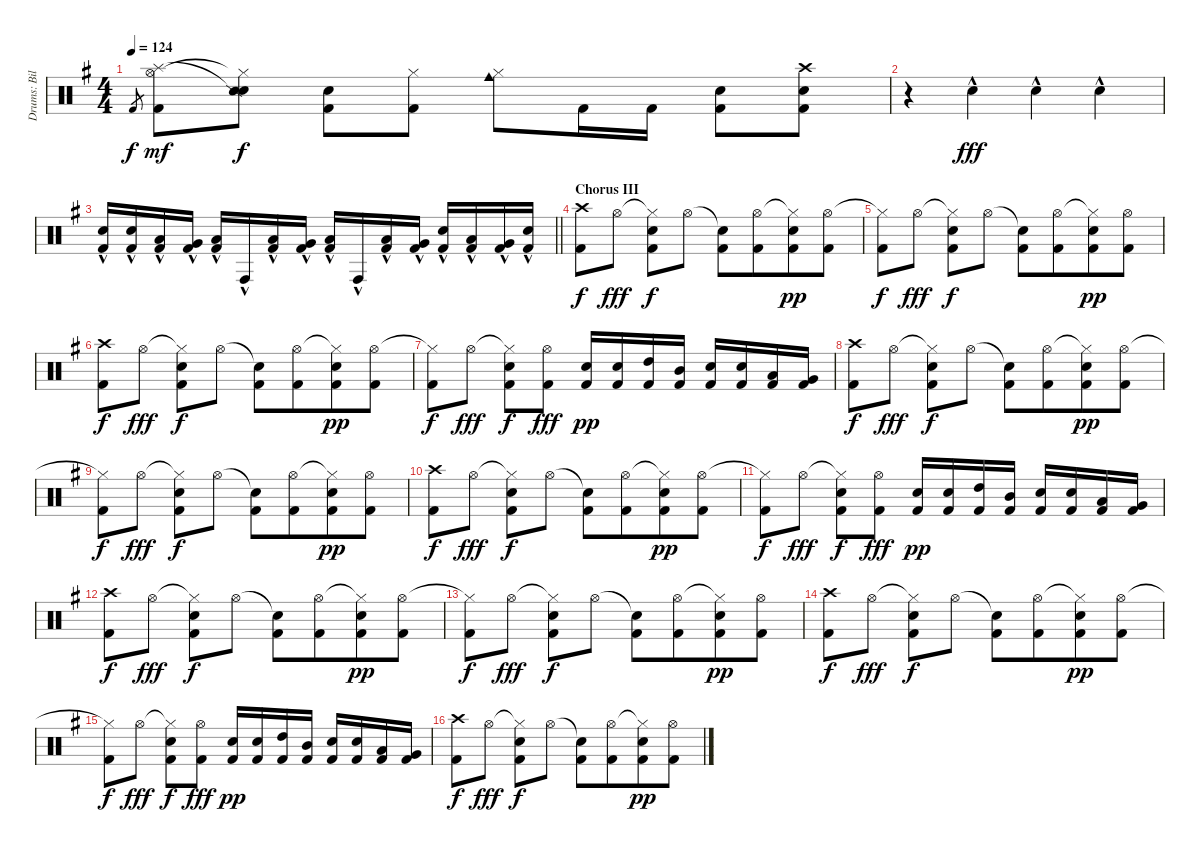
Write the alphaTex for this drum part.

\track ("Drums: Bill" "Drums: Bil") {instrument percussion}
\staff {score}
\articulation defaults
\ts (4 4)
\tempo 124
\clef neutral
\ks g "Kick (hit) 2".8{gr dy f}
("Splash (hit)" "Hi-Hat (open)" "Kick (hit) 2").8{dy mf} ("Snare (hit)"{t} "Hi-Hat (closed)"{t} "Snare (side stick) 2").8{dy f} ("Electric Snare (hit)" "Kick (hit) 2").8 ("Hi-Hat (closed)" "Kick (hit) 2").8 ("Hi-Hat (closed)" "Cowbell medium (hit)").8 "Kick (hit) 2".16 "Kick (hit) 2".16 ("Electric Snare (hit)" "Kick (hit) 2").8 ("Crash high (hit)" "Electric Snare (hit)" "Kick (hit) 2").8 |
r.4 "Electric Snare (hit)"{hac}.4{dy fff} "Electric Snare (hit)"{hac}.4 "Electric Snare (hit)"{hac}.4 |
\barLineRight lightlight
("Electric Snare (hit)"{hac} "Kick (hit) 2"{hac}).16 ("Electric Snare (hit)"{hac} "Kick (hit) 2"{hac}).16 ("Low Tom (hit)"{hac} "Kick (hit) 2"{hac}).16 ("Very Low Tom (hit)"{hac} "Kick (hit) 2"{hac}).16 ("Low Floor Tom (hit)"{hac} "Kick (hit) 2"{hac}).16 "Conga high (hit)"{hac}.16 ("Low Tom (hit)"{hac} "Kick (hit) 2"{hac}).16 ("Very Low Tom (hit)"{hac} "Kick (hit) 2"{hac}).16 ("Low Floor Tom (hit)"{hac} "Kick (hit) 2"{hac}).16 "Conga high (hit)"{hac}.16 ("Low Tom (hit)"{hac} "Kick (hit) 2"{hac}).16 ("Very Low Tom (hit)"{hac} "Kick (hit) 2"{hac}).16 ("Electric Snare (hit)"{hac} "Kick (hit) 2"{hac}).16 ("Low Tom (hit)"{hac} "Kick (hit) 2"{hac}).16 ("Very Low Tom (hit)"{hac} "Kick (hit) 2"{hac}).16 ("Electric Snare (hit)"{hac} "Kick (hit) 2"{hac}).16 |
\section ("" "Chorus III")
("Crash high (hit)" "Kick (hit) 2").8{dy f} "Hi-Hat (open)".8{dy fff} ("Hi-Hat (closed)"{t} "Electric Snare (hit)" "Kick (hit) 2").8{dy f} "Hi-Hat (open)".8 ("Snare (hit)"{t} "Kick (hit) 2").8 ("Hi-Hat (open)" "Kick (hit) 2").8{beam merge} ("Hi-Hat (closed)"{t} "Electric Snare (hit)" "Kick (hit) 2").8{dy pp} ("Hi-Hat (open)" "Kick (hit) 2").8 |
("Hi-Hat (closed)"{t} "Kick (hit) 2").8{dy f} "Hi-Hat (open)".8{dy fff} ("Hi-Hat (closed)"{t} "Electric Snare (hit)" "Kick (hit) 2").8{dy f} "Hi-Hat (open)".8 ("Snare (hit)"{t} "Kick (hit) 2").8 ("Hi-Hat (open)" "Kick (hit) 2").8{beam merge} ("Hi-Hat (closed)"{t} "Electric Snare (hit)" "Kick (hit) 2").8{dy pp} ("Hi-Hat (open)" "Kick (hit) 2").8 |
("Crash high (hit)" "Kick (hit) 2").8{dy f} "Hi-Hat (open)".8{dy fff} ("Hi-Hat (closed)"{t} "Electric Snare (hit)" "Kick (hit) 2").8{dy f} "Hi-Hat (open)".8 ("Snare (hit)"{t} "Kick (hit) 2").8 ("Hi-Hat (open)" "Kick (hit) 2").8{beam merge} ("Hi-Hat (closed)"{t} "Electric Snare (hit)" "Kick (hit) 2").8{dy pp} ("Hi-Hat (open)" "Kick (hit) 2").8 |
("Hi-Hat (closed)"{t} "Kick (hit) 2").8{dy f} "Hi-Hat (open)".8{dy fff} ("Hi-Hat (closed)"{t} "Electric Snare (hit)" "Kick (hit) 2").8{dy f} ("Hi-Hat (open)" "Kick (hit) 2").8{dy fff} ("Electric Snare (hit)" "Kick (hit) 2").16{dy pp} ("Electric Snare (hit)" "Kick (hit) 2").16 ("High Tom (hit)" "Kick (hit) 2").16 ("Mid Tom (hit)" "Kick (hit) 2").16 ("Electric Snare (hit)" "Kick (hit) 2").16 ("Electric Snare (hit)" "Kick (hit) 2").16 ("Low Tom (hit)" "Kick (hit) 2").16 ("Very Low Tom (hit)" "Kick (hit) 2").16 |
("Crash high (hit)" "Kick (hit) 2").8{dy f} "Hi-Hat (open)".8{dy fff} ("Hi-Hat (closed)"{t} "Electric Snare (hit)" "Kick (hit) 2").8{dy f} "Hi-Hat (open)".8 ("Snare (hit)"{t} "Kick (hit) 2").8 ("Hi-Hat (open)" "Kick (hit) 2").8{beam merge} ("Hi-Hat (closed)"{t} "Electric Snare (hit)" "Kick (hit) 2").8{dy pp} ("Hi-Hat (open)" "Kick (hit) 2").8 |
("Hi-Hat (closed)"{t} "Kick (hit) 2").8{dy f} "Hi-Hat (open)".8{dy fff} ("Hi-Hat (closed)"{t} "Electric Snare (hit)" "Kick (hit) 2").8{dy f} "Hi-Hat (open)".8 ("Snare (hit)"{t} "Kick (hit) 2").8 ("Hi-Hat (open)" "Kick (hit) 2").8{beam merge} ("Hi-Hat (closed)"{t} "Electric Snare (hit)" "Kick (hit) 2").8{dy pp} ("Hi-Hat (open)" "Kick (hit) 2").8 |
("Crash high (hit)" "Kick (hit) 2").8{dy f} "Hi-Hat (open)".8{dy fff} ("Hi-Hat (closed)"{t} "Electric Snare (hit)" "Kick (hit) 2").8{dy f} "Hi-Hat (open)".8 ("Snare (hit)"{t} "Kick (hit) 2").8 ("Hi-Hat (open)" "Kick (hit) 2").8{beam merge} ("Hi-Hat (closed)"{t} "Electric Snare (hit)" "Kick (hit) 2").8{dy pp} ("Hi-Hat (open)" "Kick (hit) 2").8 |
("Hi-Hat (closed)"{t} "Kick (hit) 2").8{dy f} "Hi-Hat (open)".8{dy fff} ("Hi-Hat (closed)"{t} "Electric Snare (hit)" "Kick (hit) 2").8{dy f} ("Hi-Hat (open)" "Kick (hit) 2").8{dy fff} ("Electric Snare (hit)" "Kick (hit) 2").16{dy pp} ("Electric Snare (hit)" "Kick (hit) 2").16 ("High Tom (hit)" "Kick (hit) 2").16 ("Mid Tom (hit)" "Kick (hit) 2").16 ("Electric Snare (hit)" "Kick (hit) 2").16 ("Electric Snare (hit)" "Kick (hit) 2").16 ("Low Tom (hit)" "Kick (hit) 2").16 ("Very Low Tom (hit)" "Kick (hit) 2").16 |
("Crash high (hit)" "Kick (hit) 2").8{dy f} "Hi-Hat (open)".8{dy fff} ("Hi-Hat (closed)"{t} "Electric Snare (hit)" "Kick (hit) 2").8{dy f} "Hi-Hat (open)".8 ("Snare (hit)"{t} "Kick (hit) 2").8 ("Hi-Hat (open)" "Kick (hit) 2").8{beam merge} ("Hi-Hat (closed)"{t} "Electric Snare (hit)" "Kick (hit) 2").8{dy pp} ("Hi-Hat (open)" "Kick (hit) 2").8 |
("Hi-Hat (closed)"{t} "Kick (hit) 2").8{dy f} "Hi-Hat (open)".8{dy fff} ("Hi-Hat (closed)"{t} "Electric Snare (hit)" "Kick (hit) 2").8{dy f} "Hi-Hat (open)".8 ("Snare (hit)"{t} "Kick (hit) 2").8 ("Hi-Hat (open)" "Kick (hit) 2").8{beam merge} ("Hi-Hat (closed)"{t} "Electric Snare (hit)" "Kick (hit) 2").8{dy pp} ("Hi-Hat (open)" "Kick (hit) 2").8 |
("Crash high (hit)" "Kick (hit) 2").8{dy f} "Hi-Hat (open)".8{dy fff} ("Hi-Hat (closed)"{t} "Electric Snare (hit)" "Kick (hit) 2").8{dy f} "Hi-Hat (open)".8 ("Snare (hit)"{t} "Kick (hit) 2").8 ("Hi-Hat (open)" "Kick (hit) 2").8{beam merge} ("Hi-Hat (closed)"{t} "Electric Snare (hit)" "Kick (hit) 2").8{dy pp} ("Hi-Hat (open)" "Kick (hit) 2").8 |
("Hi-Hat (closed)"{t} "Kick (hit) 2").8{dy f} "Hi-Hat (open)".8{dy fff} ("Hi-Hat (closed)"{t} "Electric Snare (hit)" "Kick (hit) 2").8{dy f} ("Hi-Hat (open)" "Kick (hit) 2").8{dy fff} ("Electric Snare (hit)" "Kick (hit) 2").16{dy pp} ("Electric Snare (hit)" "Kick (hit) 2").16 ("High Tom (hit)" "Kick (hit) 2").16 ("Mid Tom (hit)" "Kick (hit) 2").16 ("Electric Snare (hit)" "Kick (hit) 2").16 ("Electric Snare (hit)" "Kick (hit) 2").16 ("Low Tom (hit)" "Kick (hit) 2").16 ("Very Low Tom (hit)" "Kick (hit) 2").16 |
("Crash high (hit)" "Kick (hit) 2").8{dy f} "Hi-Hat (open)".8{dy fff} ("Hi-Hat (closed)"{t} "Electric Snare (hit)" "Kick (hit) 2").8{dy f} "Hi-Hat (open)".8 ("Snare (hit)"{t} "Kick (hit) 2").8 ("Hi-Hat (open)" "Kick (hit) 2").8{beam merge} ("Hi-Hat (closed)"{t} "Electric Snare (hit)" "Kick (hit) 2").8{dy pp} ("Hi-Hat (open)" "Kick (hit) 2").8
